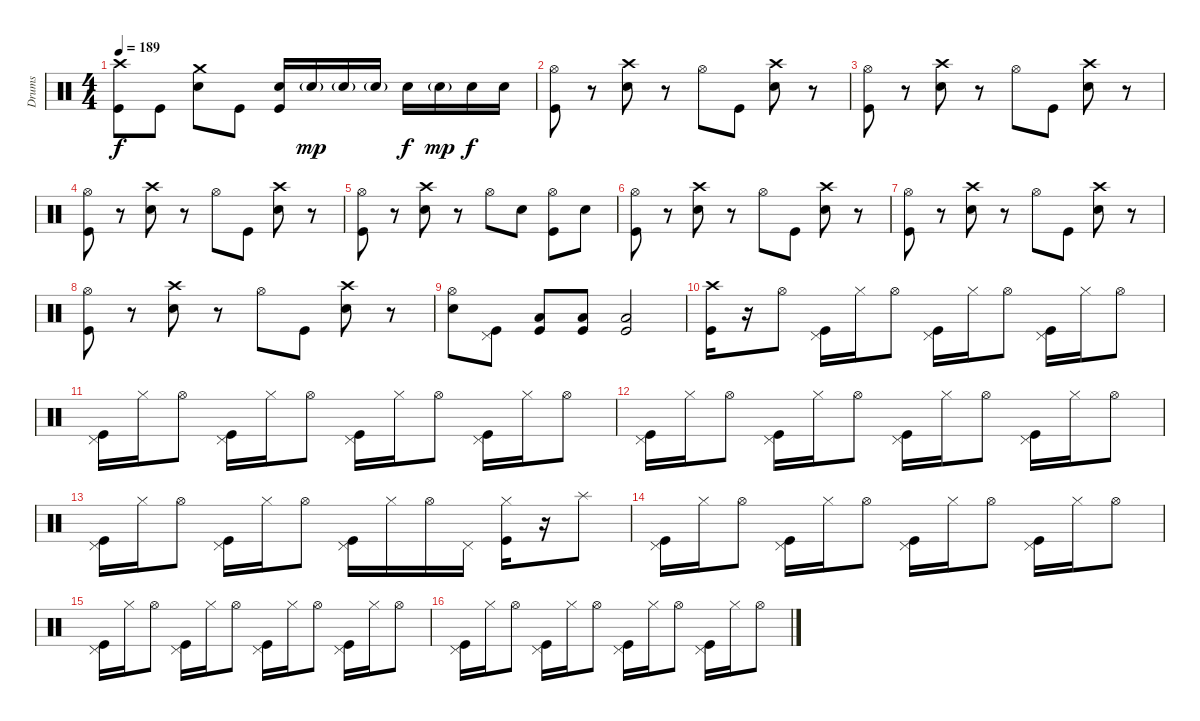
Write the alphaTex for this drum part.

\track ("Drums" "Drums") {instrument percussion}
\staff {score}
\articulation defaults
\ts (4 4)
\tempo 189
\clef neutral
\ks c
("Crash high (hit)" "Kick (hit)").8{dy f} "Kick (hit)".8 ("Crash medium (hit)" "Electric Snare (hit)").8 "Kick (hit)".8 ("Electric Snare (hit)" "Kick (hit)").16 "Electric Snare (hit)"{g}.16{dy mp} "Electric Snare (hit)"{g}.16 "Electric Snare (hit)"{g}.16 "Electric Snare (hit)".16{dy f} "Electric Snare (hit)"{g}.16{dy mp} "Electric Snare (hit)".16{dy f} "Electric Snare (hit)".16 |
("Hi-Hat (open)" "Kick (hit)").8 r.8 ("Crash high (hit)" "Electric Snare (hit)").8 r.8 "Hi-Hat (open)".8 "Kick (hit)".8 ("Crash high (hit)" "Electric Snare (hit)").8 r.8 |
("Hi-Hat (open)" "Kick (hit)").8 r.8 ("Crash high (hit)" "Electric Snare (hit)").8 r.8 "Hi-Hat (open)".8 "Kick (hit)".8 ("Crash high (hit)" "Electric Snare (hit)").8 r.8 |
("Hi-Hat (open)" "Kick (hit)").8 r.8 ("Crash high (hit)" "Electric Snare (hit)").8 r.8 "Hi-Hat (open)".8 "Kick (hit)".8 ("Crash high (hit)" "Electric Snare (hit)").8 r.8 |
("Hi-Hat (open)" "Kick (hit)").8 r.8 ("Crash high (hit)" "Electric Snare (hit)").8 r.8 "Hi-Hat (open)".8 "Electric Snare (hit)".8 ("Hi-Hat (open)" "Kick (hit)").8 "Electric Snare (hit)".8 |
("Hi-Hat (open)" "Kick (hit)").8 r.8 ("Crash high (hit)" "Electric Snare (hit)").8 r.8 "Hi-Hat (open)".8 "Kick (hit)".8 ("Crash high (hit)" "Electric Snare (hit)").8 r.8 |
("Hi-Hat (open)" "Kick (hit)").8 r.8 ("Crash high (hit)" "Electric Snare (hit)").8 r.8 "Hi-Hat (open)".8 "Kick (hit)".8 ("Crash high (hit)" "Electric Snare (hit)").8 r.8 |
("Hi-Hat (open)" "Kick (hit)").8 r.8 ("Crash high (hit)" "Electric Snare (hit)").8 r.8 "Hi-Hat (open)".8 "Kick (hit)".8 ("Crash high (hit)" "Electric Snare (hit)").8 r.8 |
("Hi-Hat (open)" "Electric Snare (hit)").8 ("Pedal Hi-Hat (hit)" "Kick (hit)").8 ("Low Floor Tom (hit)" "Kick (hit)").8 ("Low Floor Tom (hit)" "Kick (hit)").8 ("Low Floor Tom (hit)" "Kick (hit)").2 |
("Crash high (hit)" "Kick (hit)").16 r.16 "Hi-Hat (open)".8 ("Pedal Hi-Hat (hit)" "Kick (hit)").16 "Hi-Hat (closed)".16 "Hi-Hat (open)".8 ("Pedal Hi-Hat (hit)" "Kick (hit)").16 "Hi-Hat (closed)".16 "Hi-Hat (open)".8 ("Pedal Hi-Hat (hit)" "Kick (hit)").16 "Hi-Hat (closed)".16 "Hi-Hat (open)".8 |
("Pedal Hi-Hat (hit)" "Kick (hit)").16 "Hi-Hat (closed)".16 "Hi-Hat (open)".8 ("Pedal Hi-Hat (hit)" "Kick (hit)").16 "Hi-Hat (closed)".16 "Hi-Hat (open)".8 ("Pedal Hi-Hat (hit)" "Kick (hit)").16 "Hi-Hat (closed)".16 "Hi-Hat (open)".8 ("Pedal Hi-Hat (hit)" "Kick (hit)").16 "Hi-Hat (closed)".16 "Hi-Hat (open)".8 |
("Pedal Hi-Hat (hit)" "Kick (hit)").16 "Hi-Hat (closed)".16 "Hi-Hat (open)".8 ("Pedal Hi-Hat (hit)" "Kick (hit)").16 "Hi-Hat (closed)".16 "Hi-Hat (open)".8 ("Pedal Hi-Hat (hit)" "Kick (hit)").16 "Hi-Hat (closed)".16 "Hi-Hat (open)".8 ("Pedal Hi-Hat (hit)" "Kick (hit)").16 "Hi-Hat (closed)".16 "Hi-Hat (open)".8 |
("Pedal Hi-Hat (hit)" "Kick (hit)").16 "Hi-Hat (closed)".16 "Hi-Hat (open)".8 ("Pedal Hi-Hat (hit)" "Kick (hit)").16 "Hi-Hat (closed)".16 "Hi-Hat (open)".8 ("Pedal Hi-Hat (hit)" "Kick (hit)").16 "Hi-Hat (closed)".16 "Hi-Hat (open)".16 "Pedal Hi-Hat (hit)".16 ("Hi-Hat (closed)" "Kick (hit)").16 r.16 "Splash (hit)".8 |
("Pedal Hi-Hat (hit)" "Kick (hit)").16 "Hi-Hat (closed)".16 "Hi-Hat (open)".8 ("Pedal Hi-Hat (hit)" "Kick (hit)").16 "Hi-Hat (closed)".16 "Hi-Hat (open)".8 ("Pedal Hi-Hat (hit)" "Kick (hit)").16 "Hi-Hat (closed)".16 "Hi-Hat (open)".8 ("Pedal Hi-Hat (hit)" "Kick (hit)").16 "Hi-Hat (closed)".16 "Hi-Hat (open)".8 |
("Pedal Hi-Hat (hit)" "Kick (hit)").16 "Hi-Hat (closed)".16 "Hi-Hat (open)".8 ("Pedal Hi-Hat (hit)" "Kick (hit)").16 "Hi-Hat (closed)".16 "Hi-Hat (open)".8 ("Pedal Hi-Hat (hit)" "Kick (hit)").16 "Hi-Hat (closed)".16 "Hi-Hat (open)".8 ("Pedal Hi-Hat (hit)" "Kick (hit)").16 "Hi-Hat (closed)".16 "Hi-Hat (open)".8 |
("Pedal Hi-Hat (hit)" "Kick (hit)").16 "Hi-Hat (closed)".16 "Hi-Hat (open)".8 ("Pedal Hi-Hat (hit)" "Kick (hit)").16 "Hi-Hat (closed)".16 "Hi-Hat (open)".8 ("Pedal Hi-Hat (hit)" "Kick (hit)").16 "Hi-Hat (closed)".16 "Hi-Hat (open)".8 ("Pedal Hi-Hat (hit)" "Kick (hit)").16 "Hi-Hat (closed)".16 "Hi-Hat (open)".8
